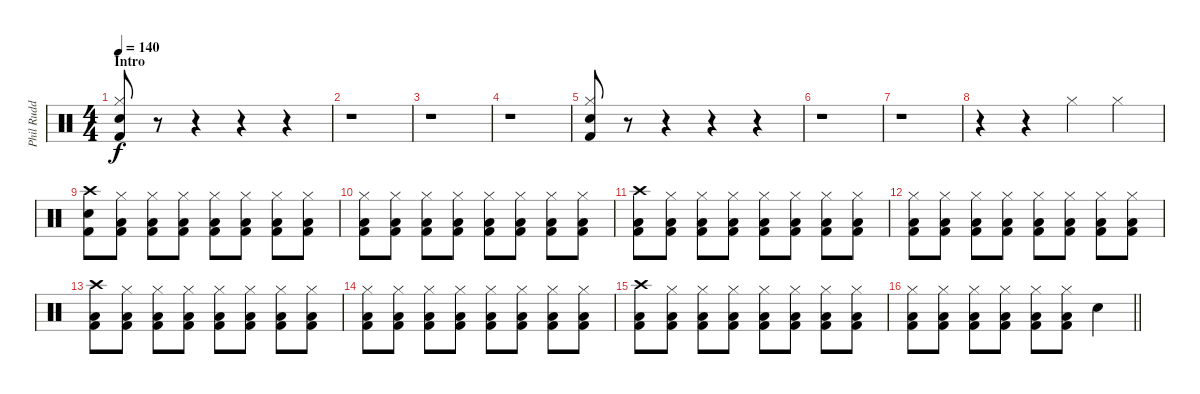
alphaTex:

\track ("Phil Rudd" "Phil Rudd") {instrument percussion}
\staff {score}
\articulation defaults
\ts (4 4)
\section ("" "Intro")
\tempo 140
\clef neutral
\ks c
("Snare (hit) 2" "Hi-Hat (closed)" "Kick (hit) 2").8{dy f} r.8 r.4 r.4 r.4 |
r.1 |
r.1 |
r.1 |
("Snare (hit) 2" "Hi-Hat (closed)" "Kick (hit) 2").8 r.8 r.4 r.4 r.4 |
r.1 |
r.1 |
r.4 r.4 "Hi-Hat (closed)".4 "Hi-Hat (closed)".4 |
("Snare (hit) 2" "Crash high (hit)" "Kick (hit) 2").8 ("Hi-Hat (closed)" "Kick (hit) 2" "Low Floor Tom (hit)").8 ("Hi-Hat (closed)" "Kick (hit) 2" "Low Floor Tom (hit)").8 ("Hi-Hat (closed)" "Kick (hit) 2" "Low Floor Tom (hit)").8 ("Hi-Hat (closed)" "Kick (hit) 2" "Low Floor Tom (hit)").8 ("Hi-Hat (closed)" "Kick (hit) 2" "Low Floor Tom (hit)").8 ("Hi-Hat (closed)" "Kick (hit) 2" "Low Floor Tom (hit)").8 ("Hi-Hat (closed)" "Kick (hit) 2" "Low Floor Tom (hit)").8 |
("Hi-Hat (closed)" "Kick (hit) 2" "Low Floor Tom (hit)").8 ("Hi-Hat (closed)" "Kick (hit) 2" "Low Floor Tom (hit)").8 ("Hi-Hat (closed)" "Kick (hit) 2" "Low Floor Tom (hit)").8 ("Hi-Hat (closed)" "Kick (hit) 2" "Low Floor Tom (hit)").8 ("Hi-Hat (closed)" "Kick (hit) 2" "Low Floor Tom (hit)").8 ("Hi-Hat (closed)" "Kick (hit) 2" "Low Floor Tom (hit)").8 ("Hi-Hat (closed)" "Kick (hit) 2" "Low Floor Tom (hit)").8 ("Hi-Hat (closed)" "Kick (hit) 2" "Low Floor Tom (hit)").8 |
("Crash high (hit)" "Kick (hit) 2" "Low Floor Tom (hit)").8 ("Hi-Hat (closed)" "Kick (hit) 2" "Low Floor Tom (hit)").8 ("Hi-Hat (closed)" "Kick (hit) 2" "Low Floor Tom (hit)").8 ("Hi-Hat (closed)" "Kick (hit) 2" "Low Floor Tom (hit)").8 ("Hi-Hat (closed)" "Kick (hit) 2" "Low Floor Tom (hit)").8 ("Hi-Hat (closed)" "Kick (hit) 2" "Low Floor Tom (hit)").8 ("Hi-Hat (closed)" "Kick (hit) 2" "Low Floor Tom (hit)").8 ("Hi-Hat (closed)" "Kick (hit) 2" "Low Floor Tom (hit)").8 |
("Hi-Hat (closed)" "Kick (hit) 2" "Low Floor Tom (hit)").8 ("Hi-Hat (closed)" "Kick (hit) 2" "Low Floor Tom (hit)").8 ("Hi-Hat (closed)" "Kick (hit) 2" "Low Floor Tom (hit)").8 ("Hi-Hat (closed)" "Kick (hit) 2" "Low Floor Tom (hit)").8 ("Hi-Hat (closed)" "Kick (hit) 2" "Low Floor Tom (hit)").8 ("Hi-Hat (closed)" "Kick (hit) 2" "Low Floor Tom (hit)").8 ("Hi-Hat (closed)" "Kick (hit) 2" "Low Floor Tom (hit)").8 ("Hi-Hat (closed)" "Kick (hit) 2" "Low Floor Tom (hit)").8 |
("Crash high (hit)" "Kick (hit) 2" "Low Floor Tom (hit)").8 ("Hi-Hat (closed)" "Kick (hit) 2" "Low Floor Tom (hit)").8 ("Hi-Hat (closed)" "Kick (hit) 2" "Low Floor Tom (hit)").8 ("Hi-Hat (closed)" "Kick (hit) 2" "Low Floor Tom (hit)").8 ("Hi-Hat (closed)" "Kick (hit) 2" "Low Floor Tom (hit)").8 ("Hi-Hat (closed)" "Kick (hit) 2" "Low Floor Tom (hit)").8 ("Hi-Hat (closed)" "Kick (hit) 2" "Low Floor Tom (hit)").8 ("Hi-Hat (closed)" "Kick (hit) 2" "Low Floor Tom (hit)").8 |
("Hi-Hat (closed)" "Kick (hit) 2" "Low Floor Tom (hit)").8 ("Hi-Hat (closed)" "Kick (hit) 2" "Low Floor Tom (hit)").8 ("Hi-Hat (closed)" "Kick (hit) 2" "Low Floor Tom (hit)").8 ("Hi-Hat (closed)" "Kick (hit) 2" "Low Floor Tom (hit)").8 ("Hi-Hat (closed)" "Kick (hit) 2" "Low Floor Tom (hit)").8 ("Hi-Hat (closed)" "Kick (hit) 2" "Low Floor Tom (hit)").8 ("Hi-Hat (closed)" "Kick (hit) 2" "Low Floor Tom (hit)").8 ("Hi-Hat (closed)" "Kick (hit) 2" "Low Floor Tom (hit)").8 |
("Crash high (hit)" "Kick (hit) 2" "Low Floor Tom (hit)").8 ("Hi-Hat (closed)" "Kick (hit) 2" "Low Floor Tom (hit)").8 ("Hi-Hat (closed)" "Kick (hit) 2" "Low Floor Tom (hit)").8 ("Hi-Hat (closed)" "Kick (hit) 2" "Low Floor Tom (hit)").8 ("Hi-Hat (closed)" "Kick (hit) 2" "Low Floor Tom (hit)").8 ("Hi-Hat (closed)" "Kick (hit) 2" "Low Floor Tom (hit)").8 ("Hi-Hat (closed)" "Kick (hit) 2" "Low Floor Tom (hit)").8 ("Hi-Hat (closed)" "Kick (hit) 2" "Low Floor Tom (hit)").8 |
\barLineRight lightlight
("Hi-Hat (closed)" "Kick (hit) 2" "Low Floor Tom (hit)").8 ("Hi-Hat (closed)" "Kick (hit) 2" "Low Floor Tom (hit)").8 ("Hi-Hat (closed)" "Kick (hit) 2" "Low Floor Tom (hit)").8 ("Hi-Hat (closed)" "Kick (hit) 2" "Low Floor Tom (hit)").8 ("Hi-Hat (closed)" "Kick (hit) 2" "Low Floor Tom (hit)").8 ("Hi-Hat (closed)" "Kick (hit) 2" "Low Floor Tom (hit)").8 "Snare (hit) 2".4
